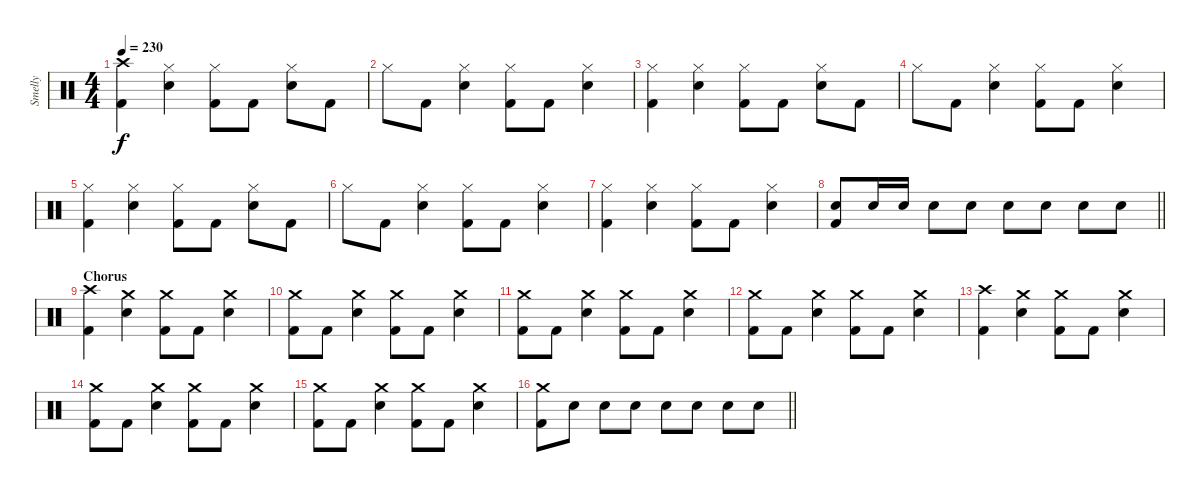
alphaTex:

\track ("Smelly" "Smelly") {instrument percussion}
\staff {score}
\articulation defaults
\ts (4 4)
\tempo 230
\clef neutral
\ks c
("Crash high (hit)" "Kick (hit) 2").4{dy f} ("Hi-Hat (closed)" "Snare (hit) 2").4 ("Hi-Hat (closed)" "Kick (hit) 2").8 "Kick (hit) 2".8 ("Hi-Hat (closed)" "Snare (hit) 2").8 "Kick (hit) 2".8 |
"Hi-Hat (closed)".8 "Kick (hit) 2".8 ("Hi-Hat (closed)" "Snare (hit) 2").4 ("Hi-Hat (closed)" "Kick (hit) 2").8 "Kick (hit) 2".8 ("Hi-Hat (closed)" "Snare (hit) 2").4 |
("Hi-Hat (closed)" "Kick (hit) 2").4 ("Hi-Hat (closed)" "Snare (hit) 2").4 ("Hi-Hat (closed)" "Kick (hit) 2").8 "Kick (hit) 2".8 ("Hi-Hat (closed)" "Snare (hit) 2").8 "Kick (hit) 2".8 |
"Hi-Hat (closed)".8 "Kick (hit) 2".8 ("Hi-Hat (closed)" "Snare (hit) 2").4 ("Hi-Hat (closed)" "Kick (hit) 2").8 "Kick (hit) 2".8 ("Hi-Hat (closed)" "Snare (hit) 2").4 |
("Hi-Hat (closed)" "Kick (hit) 2").4 ("Hi-Hat (closed)" "Snare (hit) 2").4 ("Hi-Hat (closed)" "Kick (hit) 2").8 "Kick (hit) 2".8 ("Hi-Hat (closed)" "Snare (hit) 2").8 "Kick (hit) 2".8 |
"Hi-Hat (closed)".8 "Kick (hit) 2".8 ("Hi-Hat (closed)" "Snare (hit) 2").4 ("Hi-Hat (closed)" "Kick (hit) 2").8 "Kick (hit) 2".8 ("Hi-Hat (closed)" "Snare (hit) 2").4 |
("Hi-Hat (closed)" "Kick (hit) 2").4 ("Hi-Hat (closed)" "Snare (hit) 2").4 ("Hi-Hat (closed)" "Kick (hit) 2").8 "Kick (hit) 2".8 ("Hi-Hat (closed)" "Snare (hit) 2").4 |
\barLineRight lightlight
("Snare (hit) 2" "Kick (hit) 2").8 "Snare (hit) 2".16 "Snare (hit) 2".16 "Snare (hit) 2".8 "Snare (hit) 2".8 "Snare (hit) 2".8 "Snare (hit) 2".8 "Snare (hit) 2".8 "Snare (hit) 2".8 |
\section ("" "Chorus")
("Crash high (hit)" "Kick (hit) 2").4 ("Crash medium (hit)" "Snare (hit) 2").4 ("Crash medium (hit)" "Kick (hit) 2").8 "Kick (hit) 2".8 ("Crash medium (hit)" "Snare (hit) 2").4 |
("Crash medium (hit)" "Kick (hit) 2").8 "Kick (hit) 2".8 ("Crash medium (hit)" "Snare (hit) 2").4 ("Crash medium (hit)" "Kick (hit) 2").8 "Kick (hit) 2".8 ("Crash medium (hit)" "Snare (hit) 2").4 |
("Crash medium (hit)" "Kick (hit) 2").8 "Kick (hit) 2".8 ("Crash medium (hit)" "Snare (hit) 2").4 ("Crash medium (hit)" "Kick (hit) 2").8 "Kick (hit) 2".8 ("Crash medium (hit)" "Snare (hit) 2").4 |
("Crash medium (hit)" "Kick (hit) 2").8 "Kick (hit) 2".8 ("Crash medium (hit)" "Snare (hit) 2").4 ("Crash medium (hit)" "Kick (hit) 2").8 "Kick (hit) 2".8 ("Crash medium (hit)" "Snare (hit) 2").4 |
("Crash high (hit)" "Kick (hit) 2").4 ("Crash medium (hit)" "Snare (hit) 2").4 ("Crash medium (hit)" "Kick (hit) 2").8 "Kick (hit) 2".8 ("Crash medium (hit)" "Snare (hit) 2").4 |
("Crash medium (hit)" "Kick (hit) 2").8 "Kick (hit) 2".8 ("Crash medium (hit)" "Snare (hit) 2").4 ("Crash medium (hit)" "Kick (hit) 2").8 "Kick (hit) 2".8 ("Crash medium (hit)" "Snare (hit) 2").4 |
("Crash medium (hit)" "Kick (hit) 2").8 "Kick (hit) 2".8 ("Crash medium (hit)" "Snare (hit) 2").4 ("Crash medium (hit)" "Kick (hit) 2").8 "Kick (hit) 2".8 ("Crash medium (hit)" "Snare (hit) 2").4 |
\barLineRight lightlight
("Crash medium (hit)" "Kick (hit) 2").8 "Snare (hit) 2".8 "Snare (hit) 2".8 "Snare (hit) 2".8 "Snare (hit) 2".8 "Snare (hit) 2".8 "Snare (hit) 2".8 "Snare (hit) 2".8
